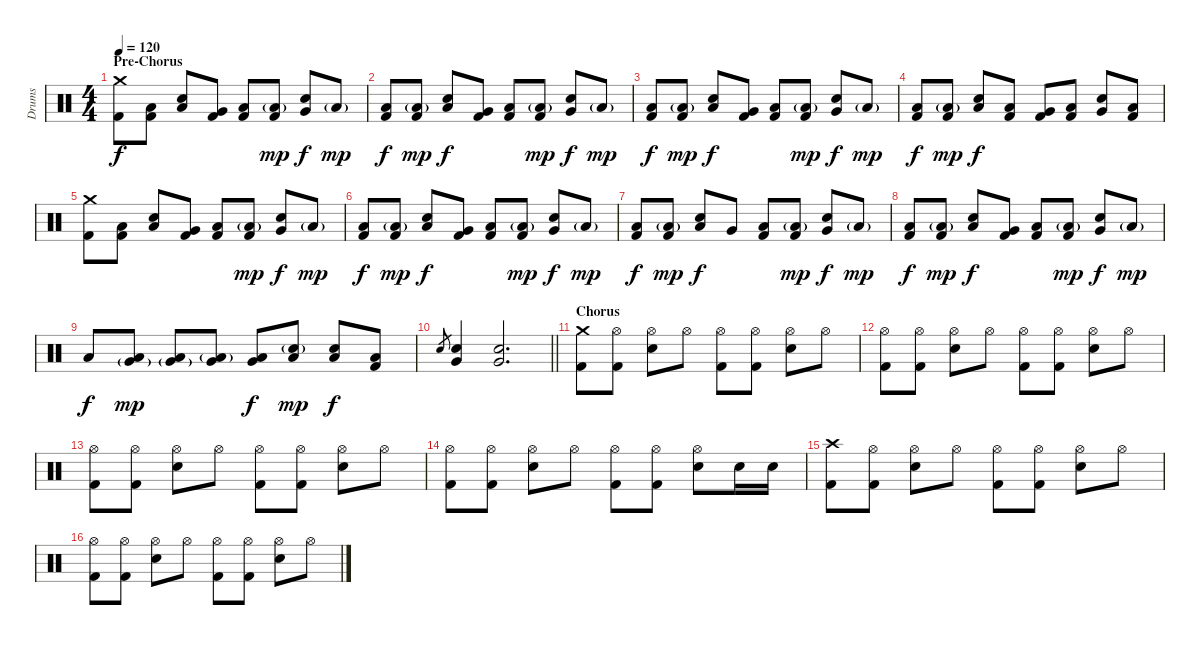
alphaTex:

\track ("Drums" "Drums") {instrument percussion}
\staff {score}
\articulation defaults
\ts (4 4)
\section ("" "Pre-Chorus")
\tempo 120
\clef neutral
\ks c
("Crash medium (hit)" "Kick (hit) 2").8{dy f} ("Low Floor Tom (hit)" "Kick (hit) 2").8 ("Low Floor Tom (hit)" "Electric Snare (hit)").8 ("Very Low Tom (hit)" "Kick (hit) 2").8 ("Low Floor Tom (hit)" "Kick (hit) 2").8 ("Low Floor Tom (hit)"{g} "Kick (hit) 2").8{dy mp} ("Very Low Tom (hit)" "Electric Snare (hit)").8{dy f} "Low Floor Tom (hit)"{g}.8{dy mp} |
("Low Floor Tom (hit)" "Kick (hit) 2").8{dy f} ("Low Floor Tom (hit)"{g} "Kick (hit) 2").8{dy mp} ("Low Floor Tom (hit)" "Electric Snare (hit)").8{dy f} ("Very Low Tom (hit)" "Kick (hit) 2").8 ("Low Floor Tom (hit)" "Kick (hit) 2").8 ("Low Floor Tom (hit)"{g} "Kick (hit) 2").8{dy mp} ("Very Low Tom (hit)" "Electric Snare (hit)").8{dy f} "Low Floor Tom (hit)"{g}.8{dy mp} |
("Low Floor Tom (hit)" "Kick (hit) 2").8{dy f} ("Low Floor Tom (hit)"{g} "Kick (hit) 2").8{dy mp} ("Low Floor Tom (hit)" "Electric Snare (hit)").8{dy f} ("Very Low Tom (hit)" "Kick (hit) 2").8 ("Low Floor Tom (hit)" "Kick (hit) 2").8 ("Low Floor Tom (hit)"{g} "Kick (hit) 2").8{dy mp} ("Very Low Tom (hit)" "Electric Snare (hit)").8{dy f} "Low Floor Tom (hit)"{g}.8{dy mp} |
("Low Floor Tom (hit)" "Kick (hit) 2").8{dy f} ("Low Floor Tom (hit)"{g} "Kick (hit) 2").8{dy mp} ("Low Floor Tom (hit)" "Electric Snare (hit)").8{dy f} ("Low Tom (hit)" "Kick (hit) 2").8 ("Very Low Tom (hit)" "Kick (hit) 2").8 ("Low Floor Tom (hit)" "Kick (hit) 2").8 ("Very Low Tom (hit)" "Electric Snare (hit)").8 ("Low Floor Tom (hit)" "Kick (hit) 2").8 |
("Crash medium (hit)" "Kick (hit) 2").8 ("Low Floor Tom (hit)" "Kick (hit) 2").8 ("Low Floor Tom (hit)" "Electric Snare (hit)").8 ("Very Low Tom (hit)" "Kick (hit) 2").8 ("Low Floor Tom (hit)" "Kick (hit) 2").8 ("Low Floor Tom (hit)"{g} "Kick (hit) 2").8{dy mp} ("Very Low Tom (hit)" "Electric Snare (hit)").8{dy f} "Low Floor Tom (hit)"{g}.8{dy mp} |
("Low Floor Tom (hit)" "Kick (hit) 2").8{dy f} ("Low Floor Tom (hit)"{g} "Kick (hit) 2").8{dy mp} ("Low Floor Tom (hit)" "Electric Snare (hit)").8{dy f} ("Very Low Tom (hit)" "Kick (hit) 2").8 ("Low Floor Tom (hit)" "Kick (hit) 2").8 ("Low Floor Tom (hit)"{g} "Kick (hit) 2").8{dy mp} ("Very Low Tom (hit)" "Electric Snare (hit)").8{dy f} "Low Floor Tom (hit)"{g}.8{dy mp} |
("Low Floor Tom (hit)" "Kick (hit) 2").8{dy f} ("Low Floor Tom (hit)"{g} "Kick (hit) 2").8{dy mp} ("Low Floor Tom (hit)" "Electric Snare (hit)").8{dy f} "Very Low Tom (hit)".8 ("Low Floor Tom (hit)" "Kick (hit) 2").8 ("Low Floor Tom (hit)"{g} "Kick (hit) 2").8{dy mp} ("Very Low Tom (hit)" "Electric Snare (hit)").8{dy f} "Low Floor Tom (hit)"{g}.8{dy mp} |
("Low Floor Tom (hit)" "Kick (hit) 2").8{dy f} ("Low Floor Tom (hit)"{g} "Kick (hit) 2").8{dy mp} ("Low Floor Tom (hit)" "Electric Snare (hit)").8{dy f} ("Very Low Tom (hit)" "Kick (hit) 2").8 ("Low Floor Tom (hit)" "Kick (hit) 2").8 ("Low Floor Tom (hit)"{g} "Kick (hit) 2").8{dy mp} ("Very Low Tom (hit)" "Electric Snare (hit)").8{dy f} "Low Floor Tom (hit)"{g}.8{dy mp} |
"Low Floor Tom (hit)".8{dy f} ("Very Low Tom (hit)"{g} "Low Floor Tom (hit)").8{dy mp} ("Very Low Tom (hit)"{g} "Low Floor Tom (hit)").8 ("Very Low Tom (hit)" "Low Tom (hit)"{g}).8 ("Very Low Tom (hit)" "Low Tom (hit)").8{dy f} ("Electric Snare (hit)"{g} "Low Tom (hit)").8{dy mp} ("Electric Snare (hit)" "Low Tom (hit)").8{dy f} ("Low Tom (hit)" "Kick (hit) 2").8 |
\barLineRight lightlight "Electric Snare (hit)".8{gr}
("Electric Snare (hit)" "Very Low Tom (hit)").4 ("Electric Snare (hit)" "Very Low Tom (hit)").2{d} |
\section ("" "Chorus")
("Crash medium (hit)" "Kick (hit) 2").8 ("Hi-Hat (open)" "Kick (hit) 2").8 ("Hi-Hat (open)" "Electric Snare (hit)").8 "Hi-Hat (open)".8 ("Hi-Hat (open)" "Kick (hit) 2").8 ("Hi-Hat (open)" "Kick (hit) 2").8 ("Hi-Hat (open)" "Electric Snare (hit)").8 "Hi-Hat (open)".8 |
("Hi-Hat (open)" "Kick (hit) 2").8 ("Hi-Hat (open)" "Kick (hit) 2").8 ("Hi-Hat (open)" "Electric Snare (hit)").8 "Hi-Hat (open)".8 ("Hi-Hat (open)" "Kick (hit) 2").8 ("Hi-Hat (open)" "Kick (hit) 2").8 ("Hi-Hat (open)" "Electric Snare (hit)").8 "Hi-Hat (open)".8 |
("Hi-Hat (open)" "Kick (hit) 2").8 ("Hi-Hat (open)" "Kick (hit) 2").8 ("Hi-Hat (open)" "Electric Snare (hit)").8 "Hi-Hat (open)".8 ("Hi-Hat (open)" "Kick (hit) 2").8 ("Hi-Hat (open)" "Kick (hit) 2").8 ("Hi-Hat (open)" "Electric Snare (hit)").8 "Hi-Hat (open)".8 |
("Hi-Hat (open)" "Kick (hit) 2").8 ("Hi-Hat (open)" "Kick (hit) 2").8 ("Hi-Hat (open)" "Electric Snare (hit)").8 "Hi-Hat (open)".8 ("Hi-Hat (open)" "Kick (hit) 2").8 ("Hi-Hat (open)" "Kick (hit) 2").8 ("Hi-Hat (open)" "Electric Snare (hit)").8 "Electric Snare (hit)".16 "Electric Snare (hit)".16 |
("Crash high (hit)" "Kick (hit) 2").8 ("Hi-Hat (open)" "Kick (hit) 2").8 ("Hi-Hat (open)" "Electric Snare (hit)").8 "Hi-Hat (open)".8 ("Hi-Hat (open)" "Kick (hit) 2").8 ("Hi-Hat (open)" "Kick (hit) 2").8 ("Hi-Hat (open)" "Electric Snare (hit)").8 "Hi-Hat (open)".8 |
("Hi-Hat (open)" "Kick (hit) 2").8 ("Hi-Hat (open)" "Kick (hit) 2").8 ("Hi-Hat (open)" "Electric Snare (hit)").8 "Hi-Hat (open)".8 ("Hi-Hat (open)" "Kick (hit) 2").8 ("Hi-Hat (open)" "Kick (hit) 2").8 ("Hi-Hat (open)" "Electric Snare (hit)").8 "Hi-Hat (open)".8
